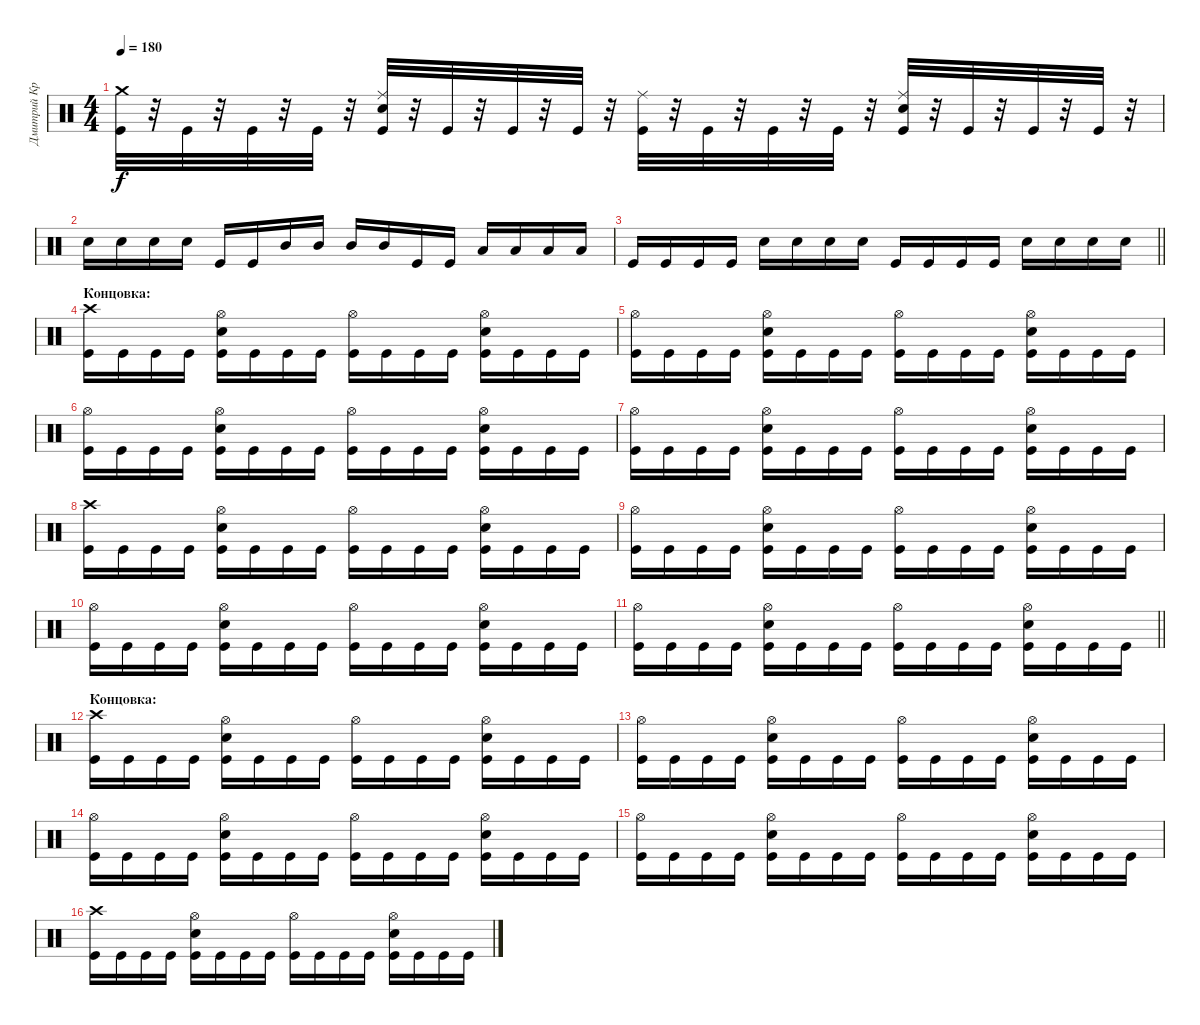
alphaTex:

\track ("Дмитрий Кривенков" "Дмитрий Кр") {instrument percussion}
\staff {score}
\articulation defaults
\ts (4 4)
\tempo 180
\clef neutral
\ks c
("Crash medium (hit)" "Kick (hit)").32{dy f} r.32 "Kick (hit)".32 r.32 "Kick (hit)".32 r.32 "Kick (hit)".32 r.32 ("Ride (middle)" "Electric Snare (hit)" "Kick (hit)").32 r.32 "Kick (hit)".32 r.32 "Kick (hit)".32 r.32 "Kick (hit)".32 r.32 ("Ride (middle)" "Kick (hit)").32 r.32 "Kick (hit)".32 r.32 "Kick (hit)".32 r.32 "Kick (hit)".32 r.32 ("Kick (hit)" "Electric Snare (hit)" "Ride (middle)").32 r.32 "Kick (hit)".32 r.32 "Kick (hit)".32 r.32 "Kick (hit)".32 r.32 |
"Electric Snare (hit)".16 "Electric Snare (hit)".16 "Electric Snare (hit)".16 "Electric Snare (hit)".16 "Kick (hit)".16 "Kick (hit)".16 "Mid Tom (hit)".16 "Mid Tom (hit)".16 "Mid Tom (hit)".16 "Mid Tom (hit)".16 "Kick (hit)".16 "Kick (hit)".16 "Low Floor Tom (hit)".16 "Low Floor Tom (hit)".16 "Low Floor Tom (hit)".16 "Low Floor Tom (hit)".16 |
\barLineRight lightlight "Kick (hit)".16 "Kick (hit)".16 "Kick (hit)".16 "Kick (hit)".16 "Electric Snare (hit)".16 "Electric Snare (hit)".16 "Electric Snare (hit)".16 "Electric Snare (hit)".16 "Kick (hit)".16 "Kick (hit)".16 "Kick (hit)".16 "Kick (hit)".16 "Electric Snare (hit)".16 "Electric Snare (hit)".16 "Electric Snare (hit)".16 "Electric Snare (hit)".16
|
\section ("" "Концовка:")
("Kick (hit)" "Crash high (hit)").16 "Kick (hit)".16 "Kick (hit)".16 "Kick (hit)".16 ("Kick (hit)" "Electric Snare (hit)" "Hi-Hat (open)").16 "Kick (hit)".16 "Kick (hit)".16 "Kick (hit)".16 ("Kick (hit)" "Hi-Hat (open)").16 "Kick (hit)".16 "Kick (hit)".16 "Kick (hit)".16 ("Kick (hit)" "Electric Snare (hit)" "Hi-Hat (open)").16 "Kick (hit)".16 "Kick (hit)".16 "Kick (hit)".16 |
("Kick (hit)" "Hi-Hat (open)").16 "Kick (hit)".16 "Kick (hit)".16 "Kick (hit)".16 ("Kick (hit)" "Electric Snare (hit)" "Hi-Hat (open)").16 "Kick (hit)".16 "Kick (hit)".16 "Kick (hit)".16 ("Kick (hit)" "Hi-Hat (open)").16 "Kick (hit)".16 "Kick (hit)".16 "Kick (hit)".16 ("Kick (hit)" "Electric Snare (hit)" "Hi-Hat (open)").16 "Kick (hit)".16 "Kick (hit)".16 "Kick (hit)".16 |
("Kick (hit)" "Hi-Hat (open)").16 "Kick (hit)".16 "Kick (hit)".16 "Kick (hit)".16 ("Kick (hit)" "Electric Snare (hit)" "Hi-Hat (open)").16 "Kick (hit)".16 "Kick (hit)".16 "Kick (hit)".16 ("Kick (hit)" "Hi-Hat (open)").16 "Kick (hit)".16 "Kick (hit)".16 "Kick (hit)".16 ("Kick (hit)" "Electric Snare (hit)" "Hi-Hat (open)").16 "Kick (hit)".16 "Kick (hit)".16 "Kick (hit)".16 |
("Kick (hit)" "Hi-Hat (open)").16 "Kick (hit)".16 "Kick (hit)".16 "Kick (hit)".16 ("Kick (hit)" "Electric Snare (hit)" "Hi-Hat (open)").16 "Kick (hit)".16 "Kick (hit)".16 "Kick (hit)".16 ("Kick (hit)" "Hi-Hat (open)").16 "Kick (hit)".16 "Kick (hit)".16 "Kick (hit)".16 ("Kick (hit)" "Electric Snare (hit)" "Hi-Hat (open)").16 "Kick (hit)".16 "Kick (hit)".16 "Kick (hit)".16 |
("Kick (hit)" "Crash high (hit)").16 "Kick (hit)".16 "Kick (hit)".16 "Kick (hit)".16 ("Kick (hit)" "Electric Snare (hit)" "Hi-Hat (open)").16 "Kick (hit)".16 "Kick (hit)".16 "Kick (hit)".16 ("Kick (hit)" "Hi-Hat (open)").16 "Kick (hit)".16 "Kick (hit)".16 "Kick (hit)".16 ("Kick (hit)" "Electric Snare (hit)" "Hi-Hat (open)").16 "Kick (hit)".16 "Kick (hit)".16 "Kick (hit)".16 |
("Kick (hit)" "Hi-Hat (open)").16 "Kick (hit)".16 "Kick (hit)".16 "Kick (hit)".16 ("Kick (hit)" "Electric Snare (hit)" "Hi-Hat (open)").16 "Kick (hit)".16 "Kick (hit)".16 "Kick (hit)".16 ("Kick (hit)" "Hi-Hat (open)").16 "Kick (hit)".16 "Kick (hit)".16 "Kick (hit)".16 ("Kick (hit)" "Electric Snare (hit)" "Hi-Hat (open)").16 "Kick (hit)".16 "Kick (hit)".16 "Kick (hit)".16 |
("Kick (hit)" "Hi-Hat (open)").16 "Kick (hit)".16 "Kick (hit)".16 "Kick (hit)".16 ("Kick (hit)" "Electric Snare (hit)" "Hi-Hat (open)").16 "Kick (hit)".16 "Kick (hit)".16 "Kick (hit)".16 ("Kick (hit)" "Hi-Hat (open)").16 "Kick (hit)".16 "Kick (hit)".16 "Kick (hit)".16 ("Hi-Hat (open)" "Electric Snare (hit)" "Kick (hit)").16 "Kick (hit)".16 "Kick (hit)".16 "Kick (hit)".16 |
\barLineRight lightlight
("Hi-Hat (open)" "Kick (hit)").16 "Kick (hit)".16 "Kick (hit)".16 "Kick (hit)".16 ("Hi-Hat (open)" "Electric Snare (hit)" "Kick (hit)").16 "Kick (hit)".16 "Kick (hit)".16 "Kick (hit)".16 ("Hi-Hat (open)" "Kick (hit)").16 "Kick (hit)".16 "Kick (hit)".16 "Kick (hit)".16 ("Hi-Hat (open)" "Electric Snare (hit)" "Kick (hit)").16 "Kick (hit)".16 "Kick (hit)".16 "Kick (hit)".16 |
\section ("" "Концовка:")
("Crash high (hit)" "Kick (hit)").16 "Kick (hit)".16 "Kick (hit)".16 "Kick (hit)".16 ("Kick (hit)" "Electric Snare (hit)" "Hi-Hat (open)").16 "Kick (hit)".16 "Kick (hit)".16 "Kick (hit)".16 ("Kick (hit)" "Hi-Hat (open)").16 "Kick (hit)".16 "Kick (hit)".16 "Kick (hit)".16 ("Kick (hit)" "Electric Snare (hit)" "Hi-Hat (open)").16 "Kick (hit)".16 "Kick (hit)".16 "Kick (hit)".16 |
("Kick (hit)" "Hi-Hat (open)").16 "Kick (hit)".16 "Kick (hit)".16 "Kick (hit)".16 ("Kick (hit)" "Electric Snare (hit)" "Hi-Hat (open)").16 "Kick (hit)".16 "Kick (hit)".16 "Kick (hit)".16 ("Kick (hit)" "Hi-Hat (open)").16 "Kick (hit)".16 "Kick (hit)".16 "Kick (hit)".16 ("Kick (hit)" "Electric Snare (hit)" "Hi-Hat (open)").16 "Kick (hit)".16 "Kick (hit)".16 "Kick (hit)".16 |
("Kick (hit)" "Hi-Hat (open)").16 "Kick (hit)".16 "Kick (hit)".16 "Kick (hit)".16 ("Kick (hit)" "Electric Snare (hit)" "Hi-Hat (open)").16 "Kick (hit)".16 "Kick (hit)".16 "Kick (hit)".16 ("Kick (hit)" "Hi-Hat (open)").16 "Kick (hit)".16 "Kick (hit)".16 "Kick (hit)".16 ("Kick (hit)" "Electric Snare (hit)" "Hi-Hat (open)").16 "Kick (hit)".16 "Kick (hit)".16 "Kick (hit)".16 |
("Kick (hit)" "Hi-Hat (open)").16 "Kick (hit)".16 "Kick (hit)".16 "Kick (hit)".16 ("Kick (hit)" "Electric Snare (hit)" "Hi-Hat (open)").16 "Kick (hit)".16 "Kick (hit)".16 "Kick (hit)".16 ("Kick (hit)" "Hi-Hat (open)").16 "Kick (hit)".16 "Kick (hit)".16 "Kick (hit)".16 ("Kick (hit)" "Electric Snare (hit)" "Hi-Hat (open)").16 "Kick (hit)".16 "Kick (hit)".16 "Kick (hit)".16 |
("Kick (hit)" "Crash high (hit)").16 "Kick (hit)".16 "Kick (hit)".16 "Kick (hit)".16 ("Kick (hit)" "Electric Snare (hit)" "Hi-Hat (open)").16 "Kick (hit)".16 "Kick (hit)".16 "Kick (hit)".16 ("Kick (hit)" "Hi-Hat (open)").16 "Kick (hit)".16 "Kick (hit)".16 "Kick (hit)".16 ("Kick (hit)" "Electric Snare (hit)" "Hi-Hat (open)").16 "Kick (hit)".16 "Kick (hit)".16 "Kick (hit)".16
